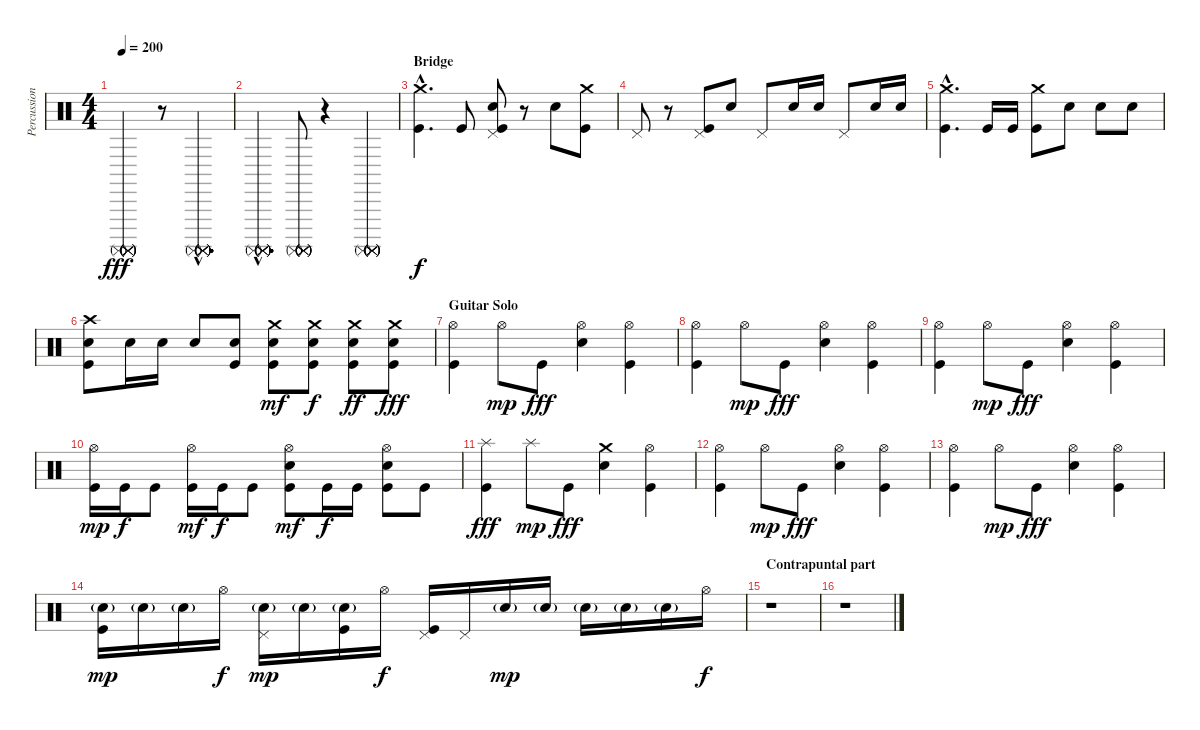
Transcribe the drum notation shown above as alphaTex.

\track ("Percussion" "Percussion") {instrument percussion}
\staff {score}
\articulation defaults
\ts (4 4)
\tempo 200
\clef neutral
\ks c
("Surdo (mute)" "Surdo (mute)" "Surdo (mute)" "Surdo (mute)" "Surdo (mute)" "Surdo (mute)").2{dy fff} r.8 ("Surdo (mute)"{hac} "Surdo (mute)"{hac} "Surdo (mute)"{hac} "Surdo (mute)"{hac} "Surdo (mute)"{hac} "Surdo (mute)"{hac}).4{d} |
("Surdo (mute)"{hac} "Surdo (mute)"{hac} "Surdo (mute)"{hac} "Surdo (mute)"{hac} "Surdo (mute)"{hac} "Surdo (mute)"{hac}).4{d} ("Surdo (mute)" "Surdo (mute)" "Surdo (mute)" "Surdo (mute)" "Surdo (mute)" "Surdo (mute)").8 r.4 ("Surdo (mute)" "Surdo (mute)" "Surdo (mute)" "Surdo (mute)" "Surdo (mute)" "Surdo (mute)").4 |
\section ("" "Bridge")
("Crash medium (hit)"{hac} "Kick (hit)"{hac}).4{d dy f} "Kick (hit)".8 ("Pedal Hi-Hat (hit)" "Electric Snare (hit)" "Kick (hit)").8 r.8 "Electric Snare (hit)".8 ("Crash medium (hit)" "Kick (hit)").8 |
"Pedal Hi-Hat (hit)".8 r.8 ("Pedal Hi-Hat (hit)" "Kick (hit)").8 "Electric Snare (hit)".8 "Pedal Hi-Hat (hit)".8 "Electric Snare (hit)".16 "Electric Snare (hit)".16 "Pedal Hi-Hat (hit)".8 "Electric Snare (hit)".16 "Electric Snare (hit)".16 |
("Crash medium (hit)"{hac} "Kick (hit)"{hac}).4{d} "Kick (hit)".16 "Kick (hit)".16 ("Crash medium (hit)" "Kick (hit)").8 "Electric Snare (hit)".8 "Electric Snare (hit)".8 "Electric Snare (hit)".8 |
("Crash high (hit)" "Electric Snare (hit)" "Kick (hit)").8 "Electric Snare (hit)".16 "Electric Snare (hit)".16 "Electric Snare (hit)".8 ("Electric Snare (hit)" "Kick (hit)").8 ("Crash medium (hit)" "Electric Snare (hit)" "Kick (hit)").8{dy mf} ("Crash medium (hit)" "Electric Snare (hit)" "Kick (hit)").8{dy f} ("Crash medium (hit)" "Electric Snare (hit)" "Kick (hit)").8{dy ff} ("Crash medium (hit)" "Electric Snare (hit)" "Kick (hit)").8{dy fff} |
\section ("" "Guitar Solo")
("Hi-Hat (open)" "Kick (hit)").4 "Hi-Hat (open)".8{dy mp} "Kick (hit)".8{dy fff} ("Hi-Hat (open)" "Electric Snare (hit)").4 ("Hi-Hat (open)" "Kick (hit)").4 |
("Hi-Hat (open)" "Kick (hit)").4 "Hi-Hat (open)".8{dy mp} "Kick (hit)".8{dy fff} ("Hi-Hat (open)" "Electric Snare (hit)").4 ("Hi-Hat (open)" "Kick (hit)").4 |
("Hi-Hat (open)" "Kick (hit)").4 "Hi-Hat (open)".8{dy mp} "Kick (hit)".8{dy fff} ("Hi-Hat (open)" "Electric Snare (hit)").4 ("Hi-Hat (open)" "Kick (hit)").4 |
("Hi-Hat (open)" "Kick (hit)").16{dy mp} "Kick (hit)".16{dy f} "Kick (hit)".8 ("Hi-Hat (open)" "Kick (hit)").16{dy mf} "Kick (hit)".16{dy f} "Kick (hit)".8 ("Hi-Hat (open)" "Electric Snare (hit)" "Kick (hit)").8{dy mf} "Kick (hit)".16{dy f} "Kick (hit)".16 ("Hi-Hat (open)" "Electric Snare (hit)" "Kick (hit)").8 "Kick (hit)".8 |
("Splash (hit)" "Kick (hit)").4{dy fff} "Splash (hit)".8{dy mp} "Kick (hit)".8{dy fff} ("Crash medium (hit)" "Electric Snare (hit)").4 ("Hi-Hat (open)" "Kick (hit)").4 |
("Hi-Hat (open)" "Kick (hit)").4 "Hi-Hat (open)".8{dy mp} "Kick (hit)".8{dy fff} ("Hi-Hat (open)" "Electric Snare (hit)").4 ("Hi-Hat (open)" "Kick (hit)").4 |
("Hi-Hat (open)" "Kick (hit)").4 "Hi-Hat (open)".8{dy mp} "Kick (hit)".8{dy fff} ("Hi-Hat (open)" "Electric Snare (hit)").4 ("Hi-Hat (open)" "Kick (hit)").4 |
("Electric Snare (hit)"{g} "Kick (hit)").16{dy mp} "Electric Snare (hit)"{g}.16 "Electric Snare (hit)"{g}.16 "Hi-Hat (open)".16{dy f} ("Pedal Hi-Hat (hit)" "Electric Snare (hit)"{g}).16{dy mp} "Electric Snare (hit)"{g}.16 ("Electric Snare (hit)"{g} "Kick (hit)").16 "Hi-Hat (open)".16{dy f} ("Pedal Hi-Hat (hit)" "Kick (hit)").16 "Pedal Hi-Hat (hit)".16 "Electric Snare (hit)"{g}.16{dy mp} "Electric Snare (hit)"{g}.16 "Electric Snare (hit)"{g}.16 "Electric Snare (hit)"{g}.16 "Electric Snare (hit)"{g}.16 "Hi-Hat (open)".16{dy f} |
\section ("" "Contrapuntal part")
r.1 |
r.1
